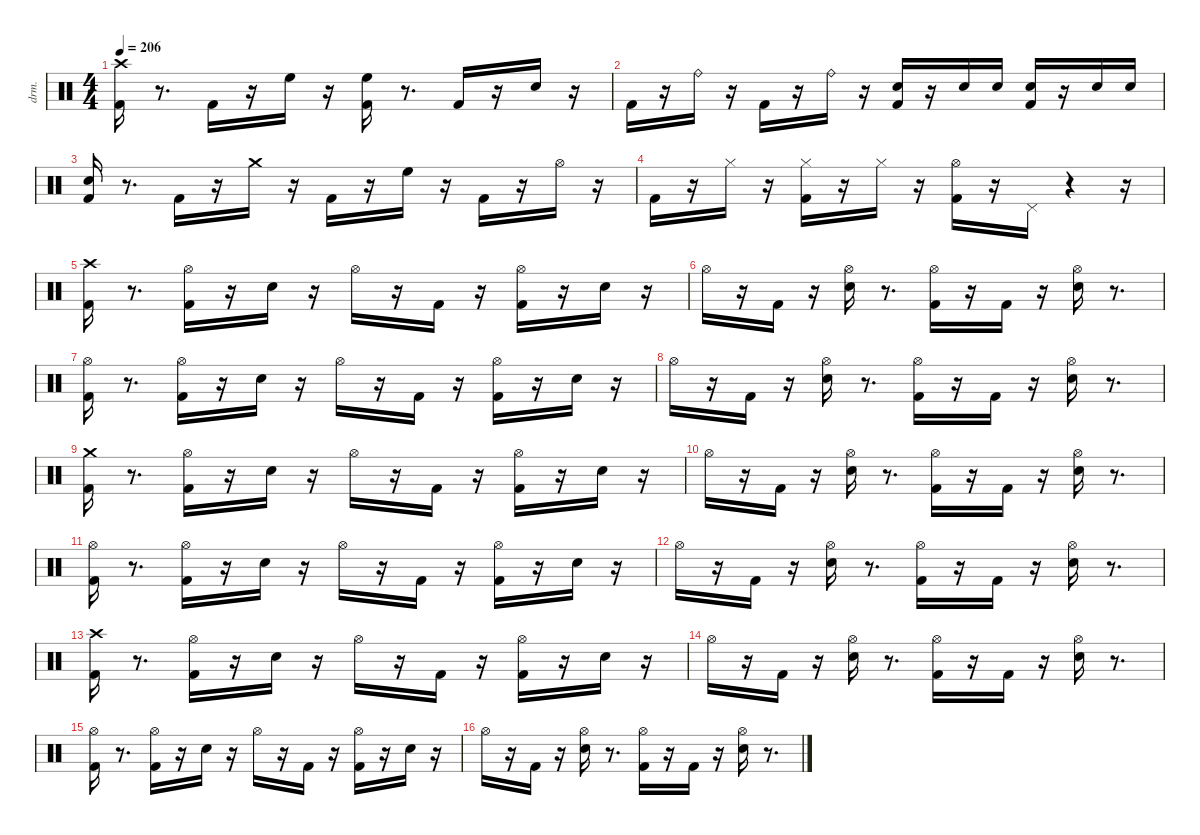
\defaultSystemsLayout 4
\hideDynamics
\bracketExtendMode nobrackets
\otherSystemsTrackNameOrientation horizontal
\track ("EZdrummer 3" "drm.") {instrument percussion}
\staff {score}
\articulation defaults
\ts (4 4)
\tempo 206
\clef neutral
\ks aminor
("Kick (hit) 2" "Crash high (hit)"{acc #}).16{dy fff beam Down} r.8{d beam Down} "Kick (hit) 2".16{dy f beam Down} r.16{beam Down} "High Floor Tom (hit)".16{dy mp beam Down} r.16{beam Down} ("Kick (hit) 2" "High Floor Tom (hit)").16{dy fff beam Down} r.8{d beam Down} "Kick (hit) 2".16{dy f beam Up} r.16{beam Up} "Snare (hit) 2".16{dy ff beam Up} r.16{beam Up} |
"Kick (hit) 2".16{dy fff beam Down} r.16{beam Down} "Ride (bell)".16{dy mf beam Down} r.16{beam Down} "Kick (hit) 2".16{dy f beam Down} r.16{beam Down} "Ride (bell)".16{dy ff beam Down} r.16{beam Down} ("Kick (hit) 2" "Snare (hit) 2").16{dy fff beam Up} r.16{beam Up} "Snare (hit) 2".16{dy p beam Up} "Snare (hit) 2".16{dy pp beam Up} ("Kick (hit) 2" "Snare (hit) 2").16{dy f beam Up} r.16{beam Up} "Snare (hit) 2".16{dy mp beam Up} "Snare (hit) 2".16{dy p beam Up} |
("Kick (hit) 2" "Snare (hit) 2").16{dy fff beam Up} r.8{d beam Up} "Kick (hit) 2".16{dy f beam Down} r.16{beam Down} "Crash medium (hit)".16{dy ff beam Down} r.16{beam Down} "Kick (hit) 2".16{dy fff beam Down} r.16{beam Down} "High Floor Tom (hit)".16{dy ff beam Down} r.16{beam Down} "Kick (hit) 2".16{dy f beam Down} r.16{beam Down} "Hi-Hat (open)"{acc #}.16{dy ff beam Down} r.16{beam Down} |
"Kick (hit) 2".16{dy fff beam Down} r.16{beam Down} "Hi-Hat (closed)"{acc #}.16{dy mp beam Down} r.16{beam Down} ("Kick (hit) 2" "Hi-Hat (closed)"{acc #}).16{dy f beam Down} r.16{beam Down} "Hi-Hat (closed)"{acc #}.16{dy p beam Down} r.16{beam Down} ("Kick (hit) 2" "Hi-Hat (open)"{acc #}).16{dy fff beam Down} r.16{beam Down} "Pedal Hi-Hat (hit)"{acc #}.16{dy ff beam Down} r.4{beam Down} r.16{beam Down} |
("Kick (hit) 2" "Crash high (hit)"{acc #}).16{beam Down} r.8{d beam Down} ("Kick (hit) 2" "Hi-Hat (open)"{acc #}).16{beam Down} r.16{beam Down} "Snare (hit) 2".16{beam Down} r.16{beam Down} "Hi-Hat (open)"{acc #}.16{dy f beam Down} r.16{beam Down} "Kick (hit) 2".16{dy mf beam Down} r.16{beam Down} ("Kick (hit) 2" "Hi-Hat (open)"{acc #}).16{dy ff beam Down} r.16{beam Down} "Snare (hit) 2".16{beam Down} r.16{beam Down} |
"Hi-Hat (open)"{acc #}.16{dy fff beam Down} r.16{beam Down} "Kick (hit) 2".16{dy ff beam Down} r.16{beam Down} ("Snare (hit) 2" "Hi-Hat (open)"{acc #}).16{beam Down} r.8{d beam Down} ("Kick (hit) 2" "Hi-Hat (open)"{acc #}).16{dy mf beam Down} r.16{beam Down} "Kick (hit) 2".16{dy fff beam Down} r.16{beam Down} ("Snare (hit) 2" "Hi-Hat (open)"{acc #}).16{dy ff beam Down} r.8{d beam Down} |
("Kick (hit) 2" "Hi-Hat (open)"{acc #}).16{beam Down} r.8{d beam Down} ("Kick (hit) 2" "Hi-Hat (open)"{acc #}).16{beam Down} r.16{beam Down} "Snare (hit) 2".16{beam Down} r.16{beam Down} "Hi-Hat (open)"{acc #}.16{dy f beam Down} r.16{beam Down} "Kick (hit) 2".16{dy mf beam Down} r.16{beam Down} ("Kick (hit) 2" "Hi-Hat (open)"{acc #}).16{dy ff beam Down} r.16{beam Down} "Snare (hit) 2".16{beam Down} r.16{beam Down} |
"Hi-Hat (open)"{acc #}.16{dy fff beam Down} r.16{beam Down} "Kick (hit) 2".16{dy ff beam Down} r.16{beam Down} ("Snare (hit) 2" "Hi-Hat (open)"{acc #}).16{beam Down} r.8{d beam Down} ("Kick (hit) 2" "Hi-Hat (open)"{acc #}).16{dy mf beam Down} r.16{beam Down} "Kick (hit) 2".16{dy fff beam Down} r.16{beam Down} ("Snare (hit) 2" "Hi-Hat (open)"{acc #}).16{dy ff beam Down} r.8{d beam Down} |
("Kick (hit) 2" "Crash medium (hit)").16{beam Down} r.8{d beam Down} ("Kick (hit) 2" "Hi-Hat (open)"{acc #}).16{beam Down} r.16{beam Down} "Snare (hit) 2".16{beam Down} r.16{beam Down} "Hi-Hat (open)"{acc #}.16{dy f beam Down} r.16{beam Down} "Kick (hit) 2".16{dy mf beam Down} r.16{beam Down} ("Kick (hit) 2" "Hi-Hat (open)"{acc #}).16{dy ff beam Down} r.16{beam Down} "Snare (hit) 2".16{beam Down} r.16{beam Down} |
"Hi-Hat (open)"{acc #}.16{dy fff beam Down} r.16{beam Down} "Kick (hit) 2".16{dy ff beam Down} r.16{beam Down} ("Snare (hit) 2" "Hi-Hat (open)"{acc #}).16{beam Down} r.8{d beam Down} ("Kick (hit) 2" "Hi-Hat (open)"{acc #}).16{dy mf beam Down} r.16{beam Down} "Kick (hit) 2".16{dy fff beam Down} r.16{beam Down} ("Snare (hit) 2" "Hi-Hat (open)"{acc #}).16{dy ff beam Down} r.8{d beam Down} |
("Kick (hit) 2" "Hi-Hat (open)"{acc #}).16{beam Down} r.8{d beam Down} ("Kick (hit) 2" "Hi-Hat (open)"{acc #}).16{beam Down} r.16{beam Down} "Snare (hit) 2".16{beam Down} r.16{beam Down} "Hi-Hat (open)"{acc #}.16{dy f beam Down} r.16{beam Down} "Kick (hit) 2".16{dy mf beam Down} r.16{beam Down} ("Kick (hit) 2" "Hi-Hat (open)"{acc #}).16{dy ff beam Down} r.16{beam Down} "Snare (hit) 2".16{beam Down} r.16{beam Down} |
"Hi-Hat (open)"{acc #}.16{dy fff beam Down} r.16{beam Down} "Kick (hit) 2".16{dy ff beam Down} r.16{beam Down} ("Snare (hit) 2" "Hi-Hat (open)"{acc #}).16{beam Down} r.8{d beam Down} ("Kick (hit) 2" "Hi-Hat (open)"{acc #}).16{dy mf beam Down} r.16{beam Down} "Kick (hit) 2".16{dy fff beam Down} r.16{beam Down} ("Snare (hit) 2" "Hi-Hat (open)"{acc #}).16{dy ff beam Down} r.8{d beam Down} |
("Kick (hit) 2" "Crash high (hit)"{acc #}).16{beam Down} r.8{d beam Down} ("Kick (hit) 2" "Hi-Hat (open)"{acc #}).16{beam Down} r.16{beam Down} "Snare (hit) 2".16{beam Down} r.16{beam Down} "Hi-Hat (open)"{acc #}.16{dy f beam Down} r.16{beam Down} "Kick (hit) 2".16{dy mf beam Down} r.16{beam Down} ("Kick (hit) 2" "Hi-Hat (open)"{acc #}).16{dy ff beam Down} r.16{beam Down} "Snare (hit) 2".16{beam Down} r.16{beam Down} |
"Hi-Hat (open)"{acc #}.16{dy fff beam Down} r.16{beam Down} "Kick (hit) 2".16{dy ff beam Down} r.16{beam Down} ("Snare (hit) 2" "Hi-Hat (open)"{acc #}).16{beam Down} r.8{d beam Down} ("Kick (hit) 2" "Hi-Hat (open)"{acc #}).16{dy mf beam Down} r.16{beam Down} "Kick (hit) 2".16{dy fff beam Down} r.16{beam Down} ("Snare (hit) 2" "Hi-Hat (open)"{acc #}).16{dy ff beam Down} r.8{d beam Down} |
("Kick (hit) 2" "Hi-Hat (open)"{acc #}).16{beam Down} r.8{d beam Down} ("Kick (hit) 2" "Hi-Hat (open)"{acc #}).16{beam Down} r.16{beam Down} "Snare (hit) 2".16{beam Down} r.16{beam Down} "Hi-Hat (open)"{acc #}.16{dy f beam Down} r.16{beam Down} "Kick (hit) 2".16{dy mf beam Down} r.16{beam Down} ("Kick (hit) 2" "Hi-Hat (open)"{acc #}).16{dy ff beam Down} r.16{beam Down} "Snare (hit) 2".16{beam Down} r.16{beam Down} |
"Hi-Hat (open)"{acc #}.16{dy fff beam Down} r.16{beam Down} "Kick (hit) 2".16{dy ff beam Down} r.16{beam Down} ("Snare (hit) 2" "Hi-Hat (open)"{acc #}).16{beam Down} r.8{d beam Down} ("Kick (hit) 2" "Hi-Hat (open)"{acc #}).16{dy mf beam Down} r.16{beam Down} "Kick (hit) 2".16{dy fff beam Down} r.16{beam Down} ("Snare (hit) 2" "Hi-Hat (open)"{acc #}).16{dy ff beam Down} r.8{d beam Down}
